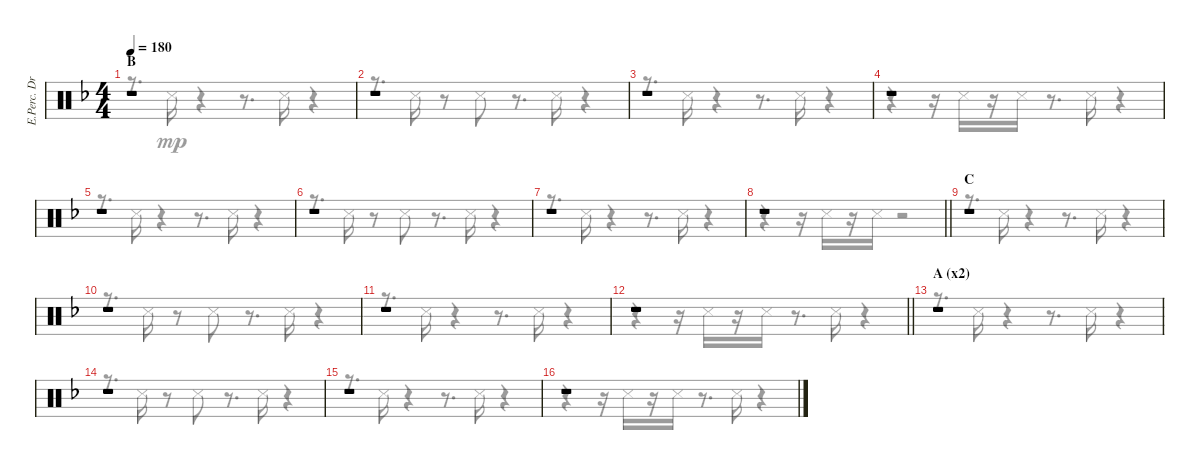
\track ("E.Perc. Drums" "E.Perc. Dr") {instrument percussion}
\staff {score}
\articulation defaults
\voice
\ts (4 4)
\section ("" "B")
\tempo 180
\clef neutral
\ks f
r.1{dy mp} |
r.1 |
r.1 |
r.1 |
r.1 |
r.1 |
r.1 |
\barLineRight lightlight
r.1 |
\section ("" "C")
r.1 |
r.1 |
r.1 |
\barLineRight lightlight
r.1 |
\section ("" "A (x2)")
r.1 |
r.1 |
r.1 |
r.1
\voice
\clef neutral
\ottava regular
\simile none
\ks f
r.8{d dy mp} "Snare (side stick) 3".16 r.4 r.8{d} "Snare (side stick) 3".16 r.4 |
r.8{d} "Snare (side stick) 3".16 r.8 "Snare (side stick) 3".8 r.8{d} "Snare (side stick) 3".16 r.4 |
r.8{d} "Snare (side stick) 3".16 r.4 r.8{d} "Snare (side stick) 3".16 r.4 |
r.4 r.16 "Snare (side stick) 3".16 r.16 "Snare (side stick) 3".16 r.8{d} "Snare (side stick) 3".16 r.4 |
r.8{d} "Snare (side stick) 3".16 r.4 r.8{d} "Snare (side stick) 3".16 r.4 |
r.8{d} "Snare (side stick) 3".16 r.8 "Snare (side stick) 3".8 r.8{d} "Snare (side stick) 3".16 r.4 |
r.8{d} "Snare (side stick) 3".16 r.4 r.8{d} "Snare (side stick) 3".16 r.4 |
\barLineRight lightlight
r.4 r.16 "Snare (side stick) 3".16 r.16 "Snare (side stick) 3".16 r.2 |
r.8{d} "Snare (side stick) 3".16 r.4 r.8{d} "Snare (side stick) 3".16 r.4 |
r.8{d} "Snare (side stick) 3".16 r.8 "Snare (side stick) 3".8 r.8{d} "Snare (side stick) 3".16 r.4 |
r.8{d} "Snare (side stick) 3".16 r.4 r.8{d} "Snare (side stick) 3".16 r.4 |
\barLineRight lightlight
r.4 r.16 "Snare (side stick) 3".16 r.16 "Snare (side stick) 3".16 r.8{d} "Snare (side stick) 3".16 r.4 |
r.8{d} "Snare (side stick) 3".16 r.4 r.8{d} "Snare (side stick) 3".16 r.4 |
r.8{d} "Snare (side stick) 3".16 r.8 "Snare (side stick) 3".8 r.8{d} "Snare (side stick) 3".16 r.4 |
r.8{d} "Snare (side stick) 3".16 r.4 r.8{d} "Snare (side stick) 3".16 r.4 |
r.4 r.16 "Snare (side stick) 3".16 r.16 "Snare (side stick) 3".16 r.8{d} "Snare (side stick) 3".16 r.4
